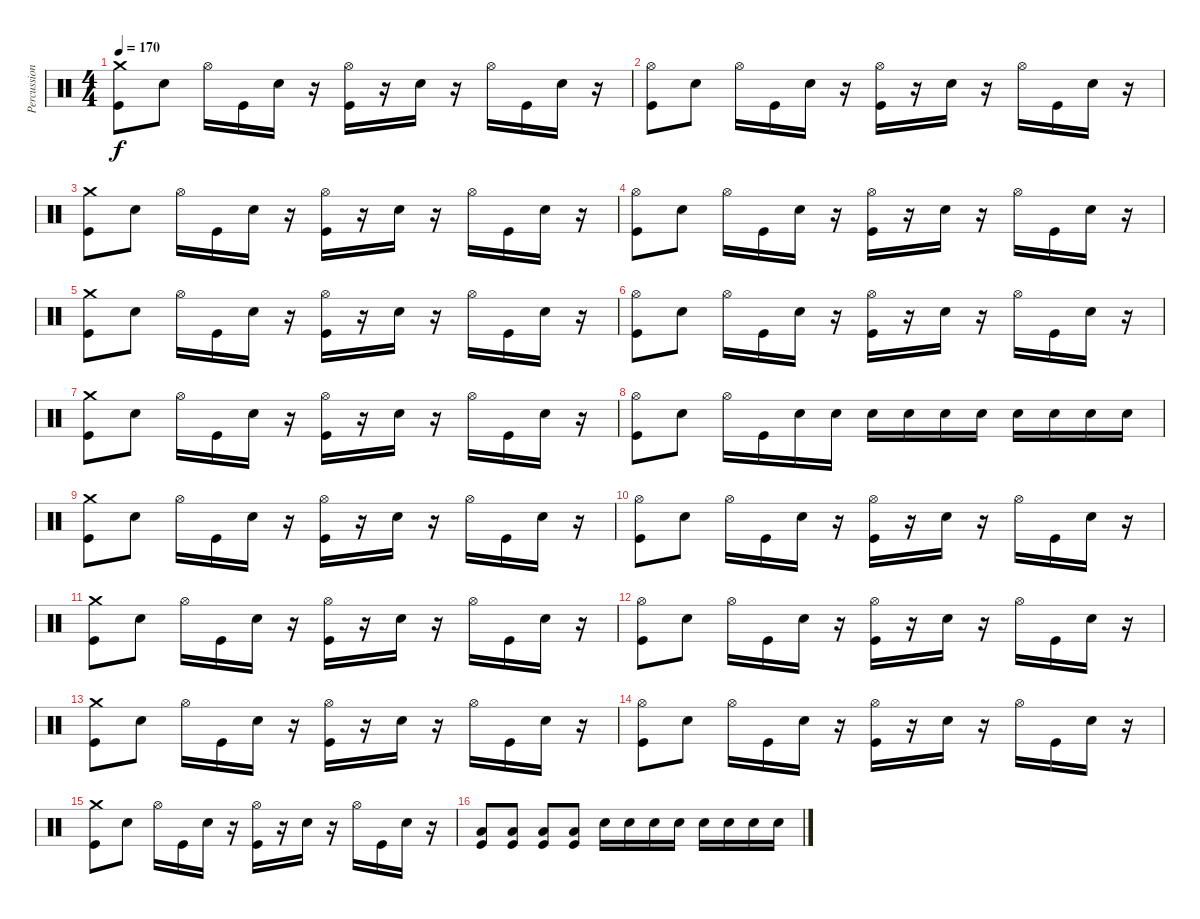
\track ("Percussion [Ron]" "Percussion") {instrument percussion}
\staff {score}
\articulation defaults
\ts (4 4)
\tempo 170
\clef neutral
\ks c
("Kick (hit)" "Crash medium (hit)").8{dy f} "Snare (hit) 2".8 "Hi-Hat (open)".16 "Kick (hit)".16 "Snare (hit) 2".16 r.16 ("Kick (hit)" "Hi-Hat (open)").16 r.16 "Snare (hit) 2".16 r.16 "Hi-Hat (open)".16 "Kick (hit)".16 "Snare (hit) 2".16 r.16 |
("Kick (hit)" "Hi-Hat (open)").8 "Snare (hit) 2".8 "Hi-Hat (open)".16 "Kick (hit)".16 "Snare (hit) 2".16 r.16 ("Kick (hit)" "Hi-Hat (open)").16 r.16 "Snare (hit) 2".16 r.16 "Hi-Hat (open)".16 "Kick (hit)".16 "Snare (hit) 2".16 r.16 |
("Kick (hit)" "Crash medium (hit)").8 "Snare (hit) 2".8 "Hi-Hat (open)".16 "Kick (hit)".16 "Snare (hit) 2".16 r.16 ("Kick (hit)" "Hi-Hat (open)").16 r.16 "Snare (hit) 2".16 r.16 "Hi-Hat (open)".16 "Kick (hit)".16 "Snare (hit) 2".16 r.16 |
("Kick (hit)" "Hi-Hat (open)").8 "Snare (hit) 2".8 "Hi-Hat (open)".16 "Kick (hit)".16 "Snare (hit) 2".16 r.16 ("Kick (hit)" "Hi-Hat (open)").16 r.16 "Snare (hit) 2".16 r.16 "Hi-Hat (open)".16 "Kick (hit)".16 "Snare (hit) 2".16 r.16 |
("Kick (hit)" "Crash medium (hit)").8 "Snare (hit) 2".8 "Hi-Hat (open)".16 "Kick (hit)".16 "Snare (hit) 2".16 r.16 ("Kick (hit)" "Hi-Hat (open)").16 r.16 "Snare (hit) 2".16 r.16 "Hi-Hat (open)".16 "Kick (hit)".16 "Snare (hit) 2".16 r.16 |
("Kick (hit)" "Hi-Hat (open)").8 "Snare (hit) 2".8 "Hi-Hat (open)".16 "Kick (hit)".16 "Snare (hit) 2".16 r.16 ("Kick (hit)" "Hi-Hat (open)").16 r.16 "Snare (hit) 2".16 r.16 "Hi-Hat (open)".16 "Kick (hit)".16 "Snare (hit) 2".16 r.16 |
("Kick (hit)" "Crash medium (hit)").8 "Snare (hit) 2".8 "Hi-Hat (open)".16 "Kick (hit)".16 "Snare (hit) 2".16 r.16 ("Kick (hit)" "Hi-Hat (open)").16 r.16 "Snare (hit) 2".16 r.16 "Hi-Hat (open)".16 "Kick (hit)".16 "Snare (hit) 2".16 r.16 |
("Kick (hit)" "Hi-Hat (open)").8 "Snare (hit) 2".8 "Hi-Hat (open)".16 "Kick (hit)".16 "Snare (hit) 2".16 "Snare (hit) 2".16 "Snare (hit) 2".16 "Snare (hit) 2".16 "Snare (hit) 2".16 "Snare (hit) 2".16 "Snare (hit) 2".16 "Snare (hit) 2".16 "Snare (hit) 2".16 "Snare (hit) 2".16 |
("Kick (hit)" "Crash medium (hit)").8 "Snare (hit) 2".8 "Hi-Hat (open)".16 "Kick (hit)".16 "Snare (hit) 2".16 r.16 ("Kick (hit)" "Hi-Hat (open)").16 r.16 "Snare (hit) 2".16 r.16 "Hi-Hat (open)".16 "Kick (hit)".16 "Snare (hit) 2".16 r.16 |
("Kick (hit)" "Hi-Hat (open)").8 "Snare (hit) 2".8 "Hi-Hat (open)".16 "Kick (hit)".16 "Snare (hit) 2".16 r.16 ("Kick (hit)" "Hi-Hat (open)").16 r.16 "Snare (hit) 2".16 r.16 "Hi-Hat (open)".16 "Kick (hit)".16 "Snare (hit) 2".16 r.16 |
("Kick (hit)" "Crash medium (hit)").8 "Snare (hit) 2".8 "Hi-Hat (open)".16 "Kick (hit)".16 "Snare (hit) 2".16 r.16 ("Kick (hit)" "Hi-Hat (open)").16 r.16 "Snare (hit) 2".16 r.16 "Hi-Hat (open)".16 "Kick (hit)".16 "Snare (hit) 2".16 r.16 |
("Kick (hit)" "Hi-Hat (open)").8 "Snare (hit) 2".8 "Hi-Hat (open)".16 "Kick (hit)".16 "Snare (hit) 2".16 r.16 ("Kick (hit)" "Hi-Hat (open)").16 r.16 "Snare (hit) 2".16 r.16 "Hi-Hat (open)".16 "Kick (hit)".16 "Snare (hit) 2".16 r.16 |
("Kick (hit)" "Crash medium (hit)").8 "Snare (hit) 2".8 "Hi-Hat (open)".16 "Kick (hit)".16 "Snare (hit) 2".16 r.16 ("Kick (hit)" "Hi-Hat (open)").16 r.16 "Snare (hit) 2".16 r.16 "Hi-Hat (open)".16 "Kick (hit)".16 "Snare (hit) 2".16 r.16 |
("Kick (hit)" "Hi-Hat (open)").8 "Snare (hit) 2".8 "Hi-Hat (open)".16 "Kick (hit)".16 "Snare (hit) 2".16 r.16 ("Kick (hit)" "Hi-Hat (open)").16 r.16 "Snare (hit) 2".16 r.16 "Hi-Hat (open)".16 "Kick (hit)".16 "Snare (hit) 2".16 r.16 |
("Kick (hit)" "Crash medium (hit)").8 "Snare (hit) 2".8 "Hi-Hat (open)".16 "Kick (hit)".16 "Snare (hit) 2".16 r.16 ("Kick (hit)" "Hi-Hat (open)").16 r.16 "Snare (hit) 2".16 r.16 "Hi-Hat (open)".16 "Kick (hit)".16 "Snare (hit) 2".16 r.16 |
("Kick (hit)" "Low Floor Tom (hit)").8 ("Kick (hit)" "Low Floor Tom (hit)").8 ("Kick (hit)" "Low Floor Tom (hit)").8 ("Kick (hit)" "Low Floor Tom (hit)").8 "Snare (hit) 2".16 "Snare (hit) 2".16 "Snare (hit) 2".16 "Snare (hit) 2".16 "Snare (hit) 2".16 "Snare (hit) 2".16 "Snare (hit) 2".16 "Snare (hit) 2".16
